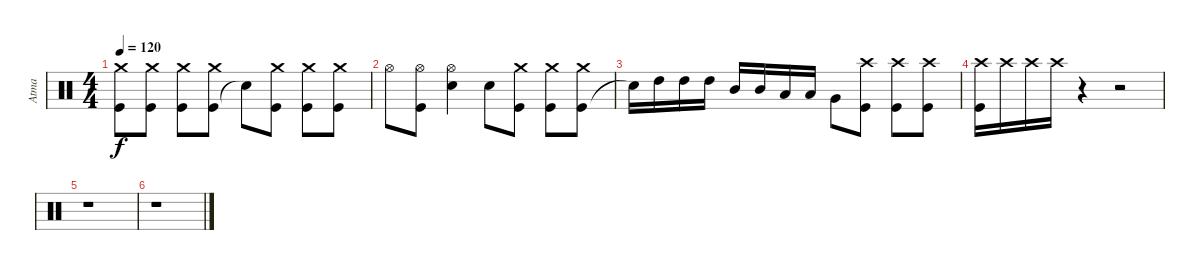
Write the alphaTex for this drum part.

\track ("Atma" "Atma") {instrument percussion}
\staff {score}
\articulation defaults
\ts (4 4)
\tempo 120
\clef neutral
\ks c
("Kick (hit)" "Crash medium (hit)").8{dy f} ("Kick (hit)" "Crash medium (hit)").8 ("Kick (hit)" "Crash medium (hit)").8 ("Kick (hit)" "Crash medium (hit)").8 "Snare (hit)"{t}.8 ("Kick (hit)" "Crash medium (hit)").8 ("Kick (hit)" "Crash medium (hit)").8 ("Kick (hit)" "Crash medium (hit)").8 |
"Hi-Hat (open)".8 ("Kick (hit)" "Hi-Hat (open)").8 ("Snare (hit) 2" "Hi-Hat (open)").4 "Snare (hit) 2".8 ("Kick (hit)" "Crash medium (hit)").8 ("Kick (hit)" "Crash medium (hit)").8 ("Kick (hit)" "Crash medium (hit)").8 |
"Snare (hit)"{t}.16 "High Tom (hit)".16 "High Tom (hit)".16 "High Tom (hit)".16 "Mid Tom (hit)".16 "Mid Tom (hit)".16 "Low Tom (hit)".16 "Low Tom (hit)".16 "Very Low Tom (hit)".8 ("Kick (hit)" "Crash high (hit)").8 ("Kick (hit)" "Crash high (hit)").8 ("Kick (hit)" "Crash high (hit)").8 |
("Kick (hit)" "Crash high (hit)").16 "Crash high (hit)".16 "Crash high (hit)".16 "Crash high (hit)".16 r.4 r.2 |
r.1 |
r.1
